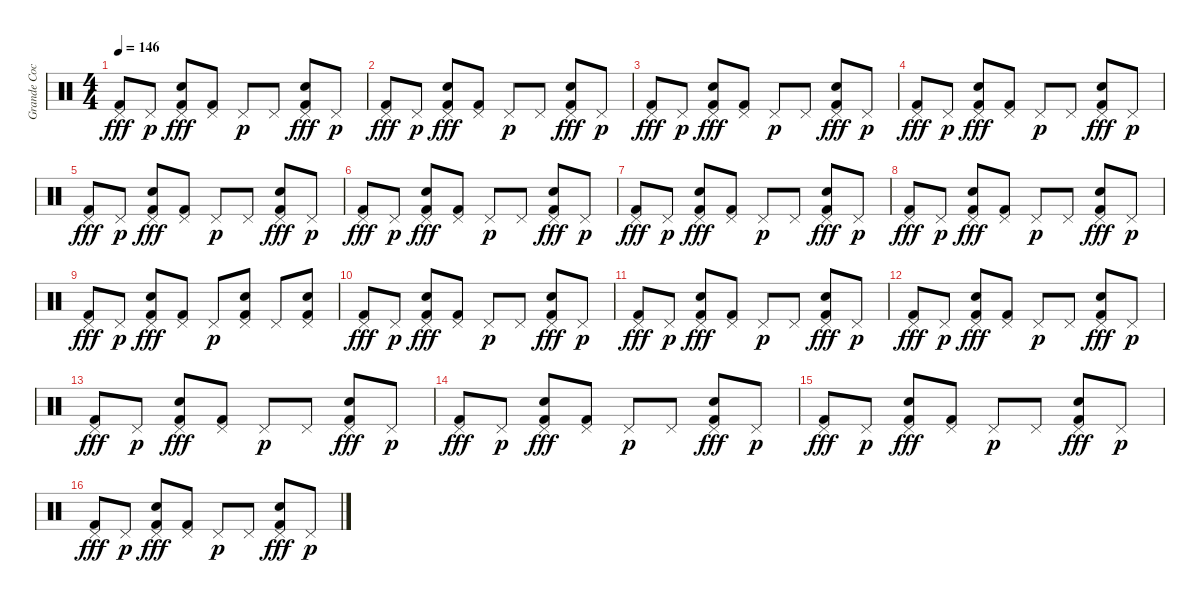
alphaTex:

\track ("Grande Coco !" "Grande Coc") {instrument percussion}
\staff {score}
\articulation defaults
\ts (4 4)
\tempo 146
\clef neutral
\ks c
("Pedal Hi-Hat (hit)" "Kick (hit) 2").8{dy fff} "Pedal Hi-Hat (hit)".8{dy p} ("Pedal Hi-Hat (hit)" "Electric Snare (hit)" "Kick (hit) 2").8{dy fff} ("Pedal Hi-Hat (hit)" "Kick (hit) 2").8 "Pedal Hi-Hat (hit)".8{dy p} "Pedal Hi-Hat (hit)".8 ("Pedal Hi-Hat (hit)" "Electric Snare (hit)" "Kick (hit) 2").8{dy fff} "Pedal Hi-Hat (hit)".8{dy p} |
("Pedal Hi-Hat (hit)" "Kick (hit) 2").8{dy fff} "Pedal Hi-Hat (hit)".8{dy p} ("Pedal Hi-Hat (hit)" "Electric Snare (hit)" "Kick (hit) 2").8{dy fff} ("Pedal Hi-Hat (hit)" "Kick (hit) 2").8 "Pedal Hi-Hat (hit)".8{dy p} "Pedal Hi-Hat (hit)".8 ("Pedal Hi-Hat (hit)" "Electric Snare (hit)" "Kick (hit) 2").8{dy fff} "Pedal Hi-Hat (hit)".8{dy p} |
("Pedal Hi-Hat (hit)" "Kick (hit) 2").8{dy fff} "Pedal Hi-Hat (hit)".8{dy p} ("Pedal Hi-Hat (hit)" "Electric Snare (hit)" "Kick (hit) 2").8{dy fff} ("Pedal Hi-Hat (hit)" "Kick (hit) 2").8 "Pedal Hi-Hat (hit)".8{dy p} "Pedal Hi-Hat (hit)".8 ("Pedal Hi-Hat (hit)" "Electric Snare (hit)" "Kick (hit) 2").8{dy fff} "Pedal Hi-Hat (hit)".8{dy p} |
("Pedal Hi-Hat (hit)" "Kick (hit) 2").8{dy fff} "Pedal Hi-Hat (hit)".8{dy p} ("Pedal Hi-Hat (hit)" "Electric Snare (hit)" "Kick (hit) 2").8{dy fff} ("Pedal Hi-Hat (hit)" "Kick (hit) 2").8 "Pedal Hi-Hat (hit)".8{dy p} "Pedal Hi-Hat (hit)".8 ("Pedal Hi-Hat (hit)" "Electric Snare (hit)" "Kick (hit) 2").8{dy fff} "Pedal Hi-Hat (hit)".8{dy p} |
("Pedal Hi-Hat (hit)" "Kick (hit) 2").8{dy fff} "Pedal Hi-Hat (hit)".8{dy p} ("Pedal Hi-Hat (hit)" "Electric Snare (hit)" "Kick (hit) 2").8{dy fff} ("Pedal Hi-Hat (hit)" "Kick (hit) 2").8 "Pedal Hi-Hat (hit)".8{dy p} "Pedal Hi-Hat (hit)".8 ("Pedal Hi-Hat (hit)" "Electric Snare (hit)" "Kick (hit) 2").8{dy fff} "Pedal Hi-Hat (hit)".8{dy p} |
("Pedal Hi-Hat (hit)" "Kick (hit) 2").8{dy fff} "Pedal Hi-Hat (hit)".8{dy p} ("Pedal Hi-Hat (hit)" "Electric Snare (hit)" "Kick (hit) 2").8{dy fff} ("Pedal Hi-Hat (hit)" "Kick (hit) 2").8 "Pedal Hi-Hat (hit)".8{dy p} "Pedal Hi-Hat (hit)".8 ("Pedal Hi-Hat (hit)" "Electric Snare (hit)" "Kick (hit) 2").8{dy fff} "Pedal Hi-Hat (hit)".8{dy p} |
("Pedal Hi-Hat (hit)" "Kick (hit) 2").8{dy fff} "Pedal Hi-Hat (hit)".8{dy p} ("Pedal Hi-Hat (hit)" "Electric Snare (hit)" "Kick (hit) 2").8{dy fff} ("Pedal Hi-Hat (hit)" "Kick (hit) 2").8 "Pedal Hi-Hat (hit)".8{dy p} "Pedal Hi-Hat (hit)".8 ("Pedal Hi-Hat (hit)" "Electric Snare (hit)" "Kick (hit) 2").8{dy fff} "Pedal Hi-Hat (hit)".8{dy p} |
("Pedal Hi-Hat (hit)" "Kick (hit) 2").8{dy fff} "Pedal Hi-Hat (hit)".8{dy p} ("Pedal Hi-Hat (hit)" "Electric Snare (hit)" "Kick (hit) 2").8{dy fff} ("Pedal Hi-Hat (hit)" "Kick (hit) 2").8 "Pedal Hi-Hat (hit)".8{dy p} "Pedal Hi-Hat (hit)".8 ("Pedal Hi-Hat (hit)" "Electric Snare (hit)" "Kick (hit) 2").8{dy fff} "Pedal Hi-Hat (hit)".8{dy p} |
("Pedal Hi-Hat (hit)" "Kick (hit) 2").8{dy fff} "Pedal Hi-Hat (hit)".8{dy p} ("Pedal Hi-Hat (hit)" "Electric Snare (hit)" "Kick (hit) 2").8{dy fff} ("Pedal Hi-Hat (hit)" "Kick (hit) 2").8 "Pedal Hi-Hat (hit)".8{dy p} ("Pedal Hi-Hat (hit)" "Electric Snare (hit)" "Kick (hit) 2").8 "Pedal Hi-Hat (hit)".8 ("Pedal Hi-Hat (hit)" "Electric Snare (hit)" "Kick (hit) 2").8 |
("Pedal Hi-Hat (hit)" "Kick (hit) 2").8{dy fff} "Pedal Hi-Hat (hit)".8{dy p} ("Pedal Hi-Hat (hit)" "Electric Snare (hit)" "Kick (hit) 2").8{dy fff} ("Pedal Hi-Hat (hit)" "Kick (hit) 2").8 "Pedal Hi-Hat (hit)".8{dy p} "Pedal Hi-Hat (hit)".8 ("Pedal Hi-Hat (hit)" "Electric Snare (hit)" "Kick (hit) 2").8{dy fff} "Pedal Hi-Hat (hit)".8{dy p} |
("Pedal Hi-Hat (hit)" "Kick (hit) 2").8{dy fff} "Pedal Hi-Hat (hit)".8{dy p} ("Pedal Hi-Hat (hit)" "Electric Snare (hit)" "Kick (hit) 2").8{dy fff} ("Pedal Hi-Hat (hit)" "Kick (hit) 2").8 "Pedal Hi-Hat (hit)".8{dy p} "Pedal Hi-Hat (hit)".8 ("Pedal Hi-Hat (hit)" "Electric Snare (hit)" "Kick (hit) 2").8{dy fff} "Pedal Hi-Hat (hit)".8{dy p} |
("Pedal Hi-Hat (hit)" "Kick (hit) 2").8{dy fff} "Pedal Hi-Hat (hit)".8{dy p} ("Pedal Hi-Hat (hit)" "Electric Snare (hit)" "Kick (hit) 2").8{dy fff} ("Pedal Hi-Hat (hit)" "Kick (hit) 2").8 "Pedal Hi-Hat (hit)".8{dy p} "Pedal Hi-Hat (hit)".8 ("Pedal Hi-Hat (hit)" "Electric Snare (hit)" "Kick (hit) 2").8{dy fff} "Pedal Hi-Hat (hit)".8{dy p} |
("Pedal Hi-Hat (hit)" "Kick (hit) 2").8{dy fff} "Pedal Hi-Hat (hit)".8{dy p} ("Pedal Hi-Hat (hit)" "Electric Snare (hit)" "Kick (hit) 2").8{dy fff} ("Pedal Hi-Hat (hit)" "Kick (hit) 2").8 "Pedal Hi-Hat (hit)".8{dy p} "Pedal Hi-Hat (hit)".8 ("Pedal Hi-Hat (hit)" "Electric Snare (hit)" "Kick (hit) 2").8{dy fff} "Pedal Hi-Hat (hit)".8{dy p} |
("Pedal Hi-Hat (hit)" "Kick (hit) 2").8{dy fff} "Pedal Hi-Hat (hit)".8{dy p} ("Pedal Hi-Hat (hit)" "Electric Snare (hit)" "Kick (hit) 2").8{dy fff} ("Pedal Hi-Hat (hit)" "Kick (hit) 2").8 "Pedal Hi-Hat (hit)".8{dy p} "Pedal Hi-Hat (hit)".8 ("Pedal Hi-Hat (hit)" "Electric Snare (hit)" "Kick (hit) 2").8{dy fff} "Pedal Hi-Hat (hit)".8{dy p} |
("Pedal Hi-Hat (hit)" "Kick (hit) 2").8{dy fff} "Pedal Hi-Hat (hit)".8{dy p} ("Pedal Hi-Hat (hit)" "Electric Snare (hit)" "Kick (hit) 2").8{dy fff} ("Pedal Hi-Hat (hit)" "Kick (hit) 2").8 "Pedal Hi-Hat (hit)".8{dy p} "Pedal Hi-Hat (hit)".8 ("Pedal Hi-Hat (hit)" "Electric Snare (hit)" "Kick (hit) 2").8{dy fff} "Pedal Hi-Hat (hit)".8{dy p} |
("Pedal Hi-Hat (hit)" "Kick (hit) 2").8{dy fff} "Pedal Hi-Hat (hit)".8{dy p} ("Pedal Hi-Hat (hit)" "Electric Snare (hit)" "Kick (hit) 2").8{dy fff} ("Pedal Hi-Hat (hit)" "Kick (hit) 2").8 "Pedal Hi-Hat (hit)".8{dy p} "Pedal Hi-Hat (hit)".8 ("Pedal Hi-Hat (hit)" "Electric Snare (hit)" "Kick (hit) 2").8{dy fff} "Pedal Hi-Hat (hit)".8{dy p}
